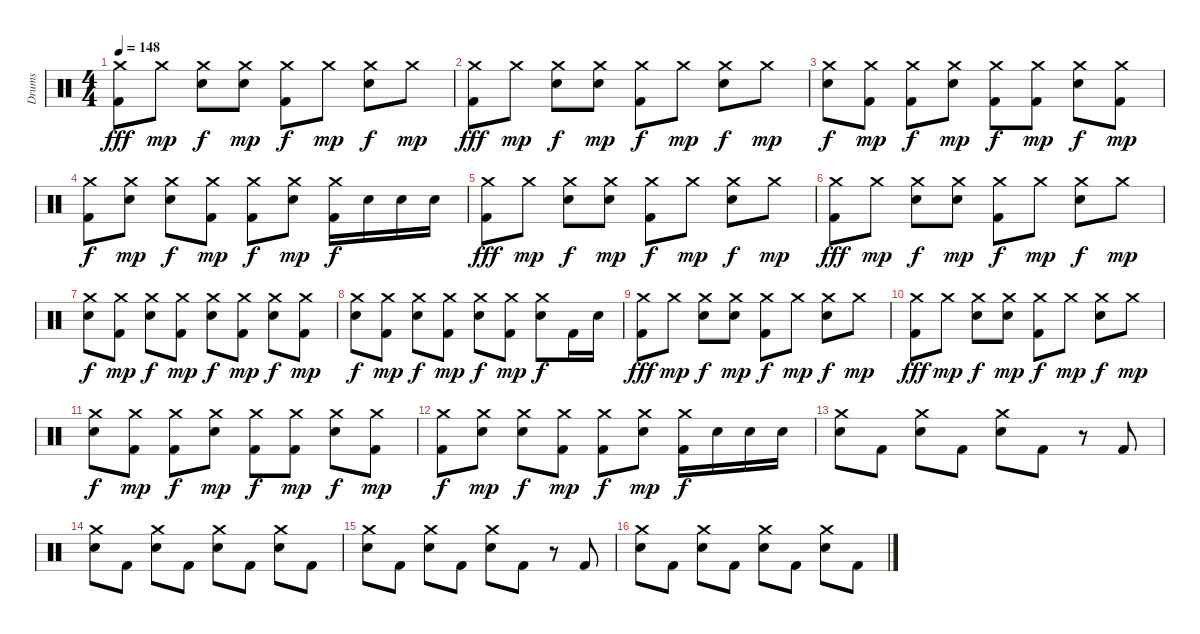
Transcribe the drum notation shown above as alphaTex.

\track ("Drums" "Drums") {instrument percussion}
\staff {score}
\articulation defaults
\ts (4 4)
\tempo 148
\clef neutral
\ks c
("Crash medium (hit)" "Kick (hit) 2").8{dy fff} "Crash medium (hit)".8{dy mp} ("Crash medium (hit)" "Snare (hit) 2").8{dy f} ("Crash medium (hit)" "Snare (hit) 2").8{dy mp} ("Crash medium (hit)" "Kick (hit) 2").8{dy f} "Crash medium (hit)".8{dy mp} ("Crash medium (hit)" "Snare (hit) 2").8{dy f} "Crash medium (hit)".8{dy mp} |
("Crash medium (hit)" "Kick (hit) 2").8{dy fff} "Crash medium (hit)".8{dy mp} ("Crash medium (hit)" "Snare (hit) 2").8{dy f} ("Crash medium (hit)" "Snare (hit) 2").8{dy mp} ("Crash medium (hit)" "Kick (hit) 2").8{dy f} "Crash medium (hit)".8{dy mp} ("Crash medium (hit)" "Snare (hit) 2").8{dy f} "Crash medium (hit)".8{dy mp} |
("Crash medium (hit)" "Snare (hit) 2").8{dy f} ("Crash medium (hit)" "Kick (hit) 2").8{dy mp} ("Crash medium (hit)" "Kick (hit) 2").8{dy f} ("Crash medium (hit)" "Snare (hit) 2").8{dy mp} ("Crash medium (hit)" "Kick (hit) 2").8{dy f} ("Crash medium (hit)" "Kick (hit) 2").8{dy mp} ("Crash medium (hit)" "Snare (hit) 2").8{dy f} ("Crash medium (hit)" "Kick (hit) 2").8{dy mp} |
("Crash medium (hit)" "Kick (hit) 2").8{dy f} ("Crash medium (hit)" "Snare (hit) 2").8{dy mp} ("Crash medium (hit)" "Snare (hit) 2").8{dy f} ("Crash medium (hit)" "Kick (hit) 2").8{dy mp} ("Crash medium (hit)" "Kick (hit) 2").8{dy f} ("Crash medium (hit)" "Snare (hit) 2").8{dy mp} ("Crash medium (hit)" "Kick (hit) 2").16{dy f} "Snare (hit) 2".16 "Snare (hit) 2".16 "Snare (hit) 2".16 |
("Crash medium (hit)" "Kick (hit) 2").8{dy fff} "Crash medium (hit)".8{dy mp} ("Crash medium (hit)" "Snare (hit) 2").8{dy f} ("Crash medium (hit)" "Snare (hit) 2").8{dy mp} ("Crash medium (hit)" "Kick (hit) 2").8{dy f} "Crash medium (hit)".8{dy mp} ("Crash medium (hit)" "Snare (hit) 2").8{dy f} "Crash medium (hit)".8{dy mp} |
("Crash medium (hit)" "Kick (hit) 2").8{dy fff} "Crash medium (hit)".8{dy mp} ("Crash medium (hit)" "Snare (hit) 2").8{dy f} ("Crash medium (hit)" "Snare (hit) 2").8{dy mp} ("Crash medium (hit)" "Kick (hit) 2").8{dy f} "Crash medium (hit)".8{dy mp} ("Crash medium (hit)" "Snare (hit) 2").8{dy f} "Crash medium (hit)".8{dy mp} |
("Crash medium (hit)" "Snare (hit) 2").8{dy f} ("Crash medium (hit)" "Kick (hit) 2").8{dy mp} ("Crash medium (hit)" "Snare (hit) 2").8{dy f} ("Crash medium (hit)" "Kick (hit) 2").8{dy mp} ("Crash medium (hit)" "Snare (hit) 2").8{dy f} ("Crash medium (hit)" "Kick (hit) 2").8{dy mp} ("Crash medium (hit)" "Snare (hit) 2").8{dy f} ("Crash medium (hit)" "Kick (hit) 2").8{dy mp} |
("Crash medium (hit)" "Snare (hit) 2").8{dy f} ("Crash medium (hit)" "Kick (hit) 2").8{dy mp} ("Crash medium (hit)" "Snare (hit) 2").8{dy f} ("Crash medium (hit)" "Kick (hit) 2").8{dy mp} ("Crash medium (hit)" "Snare (hit) 2").8{dy f} ("Crash medium (hit)" "Kick (hit) 2").8{dy mp} ("Crash medium (hit)" "Snare (hit) 2").8{dy f} "Kick (hit) 2".16 "Snare (hit) 2".16 |
("Crash medium (hit)" "Kick (hit) 2").8{dy fff} "Crash medium (hit)".8{dy mp} ("Crash medium (hit)" "Snare (hit) 2").8{dy f} ("Crash medium (hit)" "Snare (hit) 2").8{dy mp} ("Crash medium (hit)" "Kick (hit) 2").8{dy f} "Crash medium (hit)".8{dy mp} ("Crash medium (hit)" "Snare (hit) 2").8{dy f} "Crash medium (hit)".8{dy mp} |
("Crash medium (hit)" "Kick (hit) 2").8{dy fff} "Crash medium (hit)".8{dy mp} ("Crash medium (hit)" "Snare (hit) 2").8{dy f} ("Crash medium (hit)" "Snare (hit) 2").8{dy mp} ("Crash medium (hit)" "Kick (hit) 2").8{dy f} "Crash medium (hit)".8{dy mp} ("Crash medium (hit)" "Snare (hit) 2").8{dy f} "Crash medium (hit)".8{dy mp} |
("Crash medium (hit)" "Snare (hit) 2").8{dy f} ("Crash medium (hit)" "Kick (hit) 2").8{dy mp} ("Crash medium (hit)" "Kick (hit) 2").8{dy f} ("Crash medium (hit)" "Snare (hit) 2").8{dy mp} ("Crash medium (hit)" "Kick (hit) 2").8{dy f} ("Crash medium (hit)" "Kick (hit) 2").8{dy mp} ("Crash medium (hit)" "Snare (hit) 2").8{dy f} ("Crash medium (hit)" "Kick (hit) 2").8{dy mp} |
("Crash medium (hit)" "Kick (hit) 2").8{dy f} ("Crash medium (hit)" "Snare (hit) 2").8{dy mp} ("Crash medium (hit)" "Snare (hit) 2").8{dy f} ("Crash medium (hit)" "Kick (hit) 2").8{dy mp} ("Crash medium (hit)" "Kick (hit) 2").8{dy f} ("Crash medium (hit)" "Snare (hit) 2").8{dy mp} ("Crash medium (hit)" "Kick (hit) 2").16{dy f} "Snare (hit) 2".16 "Snare (hit) 2".16 "Snare (hit) 2".16 |
("Crash medium (hit)" "Snare (hit) 2").8 "Kick (hit) 2".8 ("Crash medium (hit)" "Snare (hit) 2").8 "Kick (hit) 2".8 ("Crash medium (hit)" "Snare (hit) 2").8 "Kick (hit) 2".8 r.8 "Kick (hit) 2".8 |
("Crash medium (hit)" "Snare (hit) 2").8 "Kick (hit) 2".8 ("Crash medium (hit)" "Snare (hit) 2").8 "Kick (hit) 2".8 ("Crash medium (hit)" "Snare (hit) 2").8 "Kick (hit) 2".8 ("Crash medium (hit)" "Snare (hit) 2").8 "Kick (hit) 2".8 |
("Crash medium (hit)" "Snare (hit) 2").8 "Kick (hit) 2".8 ("Crash medium (hit)" "Snare (hit) 2").8 "Kick (hit) 2".8 ("Crash medium (hit)" "Snare (hit) 2").8 "Kick (hit) 2".8 r.8 "Kick (hit) 2".8 |
("Crash medium (hit)" "Snare (hit) 2").8 "Kick (hit) 2".8 ("Crash medium (hit)" "Snare (hit) 2").8 "Kick (hit) 2".8 ("Crash medium (hit)" "Snare (hit) 2").8 "Kick (hit) 2".8 ("Crash medium (hit)" "Snare (hit) 2").8 "Kick (hit) 2".8
